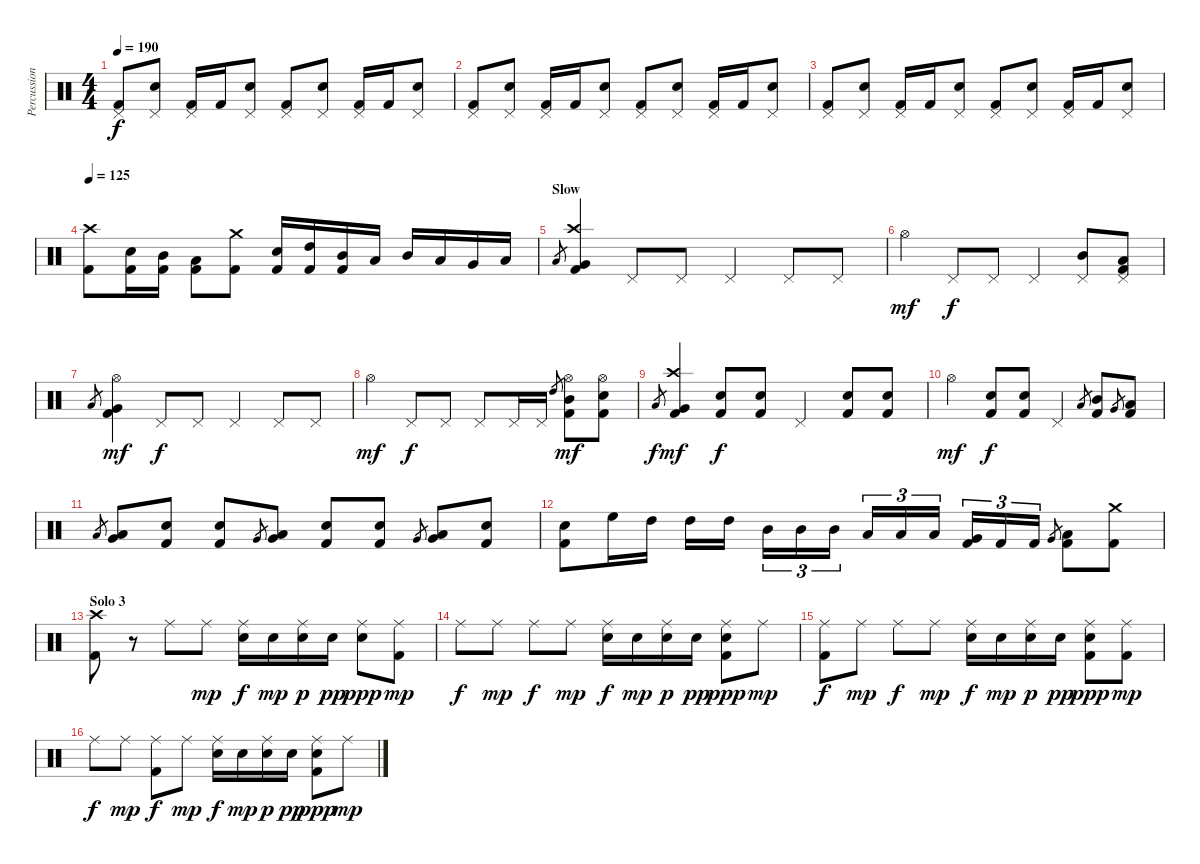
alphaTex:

\track ("Percussion" "Percussion") {instrument percussion}
\staff {score}
\articulation defaults
\ts (4 4)
\tempo 190
\clef neutral
\ks c
("Pedal Hi-Hat (hit)" "Kick (hit) 2").8{dy f} ("Pedal Hi-Hat (hit)" "Snare (hit) 2").8 ("Pedal Hi-Hat (hit)" "Kick (hit) 2").16 "Kick (hit) 2".16 ("Pedal Hi-Hat (hit)" "Snare (hit) 2").8 ("Pedal Hi-Hat (hit)" "Kick (hit) 2").8 ("Pedal Hi-Hat (hit)" "Snare (hit) 2").8 ("Pedal Hi-Hat (hit)" "Kick (hit) 2").16 "Kick (hit) 2".16 ("Pedal Hi-Hat (hit)" "Snare (hit) 2").8 |
("Pedal Hi-Hat (hit)" "Kick (hit) 2").8 ("Pedal Hi-Hat (hit)" "Snare (hit) 2").8 ("Pedal Hi-Hat (hit)" "Kick (hit) 2").16 "Kick (hit) 2".16 ("Pedal Hi-Hat (hit)" "Snare (hit) 2").8 ("Pedal Hi-Hat (hit)" "Kick (hit) 2").8 ("Pedal Hi-Hat (hit)" "Snare (hit) 2").8 ("Pedal Hi-Hat (hit)" "Kick (hit) 2").16 "Kick (hit) 2".16 ("Pedal Hi-Hat (hit)" "Snare (hit) 2").8 |
("Pedal Hi-Hat (hit)" "Kick (hit) 2").8 ("Pedal Hi-Hat (hit)" "Snare (hit) 2").8 ("Pedal Hi-Hat (hit)" "Kick (hit) 2").16 "Kick (hit) 2".16 ("Pedal Hi-Hat (hit)" "Snare (hit) 2").8 ("Pedal Hi-Hat (hit)" "Kick (hit) 2").8 ("Pedal Hi-Hat (hit)" "Snare (hit) 2").8 ("Pedal Hi-Hat (hit)" "Kick (hit) 2").16 "Kick (hit) 2".16 ("Pedal Hi-Hat (hit)" "Snare (hit) 2").8 |
\tempo 125
("Crash high (hit)" "Kick (hit) 2").8 ("Snare (hit) 2" "Kick (hit) 2").16 ("Mid Tom (hit)" "Kick (hit) 2").16 ("Low Tom (hit)" "Kick (hit) 2").8 ("Crash medium (hit)" "Kick (hit) 2").8 ("Snare (hit) 2" "Kick (hit) 2").16 ("High Tom (hit)" "Kick (hit) 2").16 ("Mid Tom (hit)" "Kick (hit) 2").16 "Low Tom (hit)".16 "Mid Tom (hit)".16 "Low Tom (hit)".16 "Very Low Tom (hit)".16 "Low Floor Tom (hit)".16 |
\section ("" "Slow")
"Low Tom (hit)".8{gr} ("Crash high (hit)" "Very Low Tom (hit)" "Kick (hit) 2").4 "Pedal Hi-Hat (hit)".8 "Pedal Hi-Hat (hit)".8 "Pedal Hi-Hat (hit)".4 "Pedal Hi-Hat (hit)".8 "Pedal Hi-Hat (hit)".8 |
"Hi-Hat (open)".4{dy mf} "Pedal Hi-Hat (hit)".8{dy f} "Pedal Hi-Hat (hit)".8 "Pedal Hi-Hat (hit)".4 ("Pedal Hi-Hat (hit)" "Mid Tom (hit)").8 ("Pedal Hi-Hat (hit)" "Low Tom (hit)" "Kick (hit) 2").8 |
"Low Tom (hit)".8{gr} ("Hi-Hat (open)" "Very Low Tom (hit)" "Kick (hit) 2").4{dy mf} "Pedal Hi-Hat (hit)".8{dy f} "Pedal Hi-Hat (hit)".8 "Pedal Hi-Hat (hit)".4 "Pedal Hi-Hat (hit)".8 "Pedal Hi-Hat (hit)".8 |
"Hi-Hat (open)".4{dy mf} "Pedal Hi-Hat (hit)".8{dy f} "Pedal Hi-Hat (hit)".8 "Pedal Hi-Hat (hit)".8 "Pedal Hi-Hat (hit)".16 "Pedal Hi-Hat (hit)".16 "High Tom (hit)".8{gr} ("Hi-Hat (open)" "Mid Tom (hit)" "Kick (hit) 2").8{dy mf} ("Hi-Hat (open)" "Electric Snare (hit)" "Kick (hit) 2").8 |
"Low Tom (hit)".8{gr dy f} ("Crash high (hit)" "Very Low Tom (hit)" "Kick (hit) 2").4{dy mf} ("Electric Snare (hit)" "Kick (hit) 2").8{dy f} ("Electric Snare (hit)" "Kick (hit) 2").8 "Pedal Hi-Hat (hit)".4 ("Electric Snare (hit)" "Kick (hit) 2").8 ("Electric Snare (hit)" "Kick (hit) 2").8 |
"Hi-Hat (open)".4{dy mf} ("Electric Snare (hit)" "Kick (hit) 2").8{dy f} ("Electric Snare (hit)" "Kick (hit) 2").8 "Pedal Hi-Hat (hit)".4 "Low Tom (hit)".8{gr} ("Mid Tom (hit)" "Kick (hit) 2").8 "Very Low Tom (hit)".8{gr} ("Low Tom (hit)" "Kick (hit) 2").8 |
"Low Tom (hit)".8{gr} ("Very Low Tom (hit)" "Low Tom (hit)").8 ("Electric Snare (hit)" "Kick (hit) 2").8 ("Electric Snare (hit)" "Kick (hit) 2").8 "Very Low Tom (hit)".8{gr} ("Very Low Tom (hit)" "Low Tom (hit)").8 ("Electric Snare (hit)" "Kick (hit) 2").8 ("Electric Snare (hit)" "Kick (hit) 2").8 "Very Low Tom (hit)".8{gr} ("Very Low Tom (hit)" "Low Tom (hit)").8 ("Electric Snare (hit)" "Kick (hit) 2").8 |
("Electric Snare (hit)" "Kick (hit) 2").8 "High Floor Tom (hit)".16 "High Tom (hit)".16 "High Tom (hit)".16 "High Tom (hit)".16 "Mid Tom (hit)".16{tu (3 2)} "Mid Tom (hit)".16{tu (3 2)} "Mid Tom (hit)".16{tu (3 2)} "Low Tom (hit)".16{tu (3 2)} "Low Tom (hit)".16{tu (3 2)} "Low Tom (hit)".16{tu (3 2)} ("Very Low Tom (hit)" "Kick (hit) 2").16{tu (3 2)} "Kick (hit) 2".16{tu (3 2)} "Kick (hit) 2".16{tu (3 2)} "Very Low Tom (hit)".8{gr} ("Low Tom (hit)" "Kick (hit) 2").8 ("Crash medium (hit)" "Kick (hit) 2").8 |
\section ("" "Solo 3")
("Crash high (hit)" "Kick (hit) 2").8 r.8 "Ride (middle)".8 "Ride (middle)".8{dy mp} ("Ride (middle)" "Electric Snare (hit)").16{dy f} "Electric Snare (hit)".16{dy mp} ("Ride (middle)" "Electric Snare (hit)").16{dy p} "Electric Snare (hit)".16{dy pp} ("Ride (middle)" "Electric Snare (hit)").8{dy ppp} ("Ride (middle)" "Kick (hit) 2").8{dy mp} |
"Ride (middle)".8{dy f} "Ride (middle)".8{dy mp} "Ride (middle)".8{dy f} "Ride (middle)".8{dy mp} ("Ride (middle)" "Electric Snare (hit)").16{dy f} "Electric Snare (hit)".16{dy mp} ("Ride (middle)" "Electric Snare (hit)").16{dy p} "Electric Snare (hit)".16{dy pp} ("Ride (middle)" "Electric Snare (hit)" "Kick (hit) 2").8{dy ppp} "Ride (middle)".8{dy mp} |
("Ride (middle)" "Kick (hit) 2").8{dy f} "Ride (middle)".8{dy mp} "Ride (middle)".8{dy f} "Ride (middle)".8{dy mp} ("Ride (middle)" "Electric Snare (hit)").16{dy f} "Electric Snare (hit)".16{dy mp} ("Ride (middle)" "Electric Snare (hit)").16{dy p} "Electric Snare (hit)".16{dy pp} ("Ride (middle)" "Electric Snare (hit)" "Kick (hit) 2").8{dy ppp} ("Ride (middle)" "Kick (hit) 2").8{dy mp} |
"Ride (middle)".8{dy f} "Ride (middle)".8{dy mp} ("Ride (middle)" "Kick (hit) 2").8{dy f} "Ride (middle)".8{dy mp} ("Ride (middle)" "Electric Snare (hit)").16{dy f} "Electric Snare (hit)".16{dy mp} ("Ride (middle)" "Electric Snare (hit)").16{dy p} "Electric Snare (hit)".16{dy pp} ("Ride (middle)" "Electric Snare (hit)" "Kick (hit) 2").8{dy ppp} "Ride (middle)".8{dy mp}
